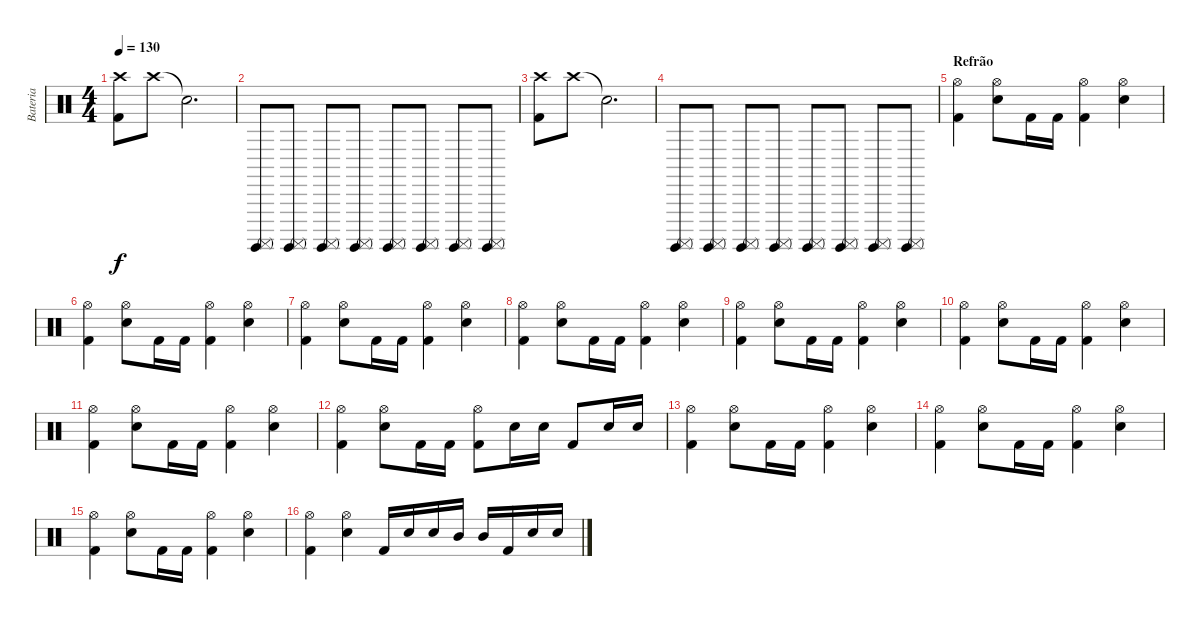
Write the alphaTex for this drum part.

\track ("Bateria" "Bateria") {instrument percussion}
\staff {score}
\articulation defaults
\ts (4 4)
\tempo 130
\clef neutral
\ks c
("Crash high (hit)" "Kick (hit) 2").8{dy f} "Crash high (hit)".8 "Snare (hit)"{t}.2{d volume 0} |
("Surdo (hit)" "Surdo (mute)").8{volume 15} ("Surdo (hit)" "Surdo (mute)").8 ("Surdo (hit)" "Surdo (mute)").8 ("Surdo (hit)" "Surdo (mute)").8 ("Surdo (hit)" "Surdo (mute)").8 ("Surdo (hit)" "Surdo (mute)").8 ("Surdo (hit)" "Surdo (mute)").8 ("Surdo (hit)" "Surdo (mute)").8 |
("Crash high (hit)" "Kick (hit) 2").8 "Crash high (hit)".8 "Snare (hit)"{t}.2{d volume 0} |
("Surdo (hit)" "Surdo (mute)").8{volume 15} ("Surdo (hit)" "Surdo (mute)").8 ("Surdo (hit)" "Surdo (mute)").8 ("Surdo (hit)" "Surdo (mute)").8 ("Surdo (hit)" "Surdo (mute)").8 ("Surdo (hit)" "Surdo (mute)").8 ("Surdo (hit)" "Surdo (mute)").8 ("Surdo (hit)" "Surdo (mute)").8 |
\section ("" "Refrão")
("Hi-Hat (open)" "Kick (hit) 2").4 ("Hi-Hat (open)" "Electric Snare (hit)").8 "Kick (hit) 2".16 "Kick (hit) 2".16 ("Hi-Hat (open)" "Kick (hit) 2").4 ("Hi-Hat (open)" "Electric Snare (hit)").4 |
("Hi-Hat (open)" "Kick (hit) 2").4 ("Hi-Hat (open)" "Electric Snare (hit)").8 "Kick (hit) 2".16 "Kick (hit) 2".16 ("Hi-Hat (open)" "Kick (hit) 2").4 ("Hi-Hat (open)" "Electric Snare (hit)").4 |
("Hi-Hat (open)" "Kick (hit) 2").4 ("Hi-Hat (open)" "Electric Snare (hit)").8 "Kick (hit) 2".16 "Kick (hit) 2".16 ("Hi-Hat (open)" "Kick (hit) 2").4 ("Hi-Hat (open)" "Electric Snare (hit)").4 |
("Hi-Hat (open)" "Kick (hit) 2").4 ("Hi-Hat (open)" "Electric Snare (hit)").8 "Kick (hit) 2".16 "Kick (hit) 2".16 ("Hi-Hat (open)" "Kick (hit) 2").4 ("Hi-Hat (open)" "Electric Snare (hit)").4 |
("Hi-Hat (open)" "Kick (hit) 2").4 ("Hi-Hat (open)" "Electric Snare (hit)").8 "Kick (hit) 2".16 "Kick (hit) 2".16 ("Hi-Hat (open)" "Kick (hit) 2").4 ("Hi-Hat (open)" "Electric Snare (hit)").4 |
("Hi-Hat (open)" "Kick (hit) 2").4 ("Hi-Hat (open)" "Electric Snare (hit)").8 "Kick (hit) 2".16 "Kick (hit) 2".16 ("Hi-Hat (open)" "Kick (hit) 2").4 ("Hi-Hat (open)" "Electric Snare (hit)").4 |
("Hi-Hat (open)" "Kick (hit) 2").4 ("Hi-Hat (open)" "Electric Snare (hit)").8 "Kick (hit) 2".16 "Kick (hit) 2".16 ("Hi-Hat (open)" "Kick (hit) 2").4 ("Hi-Hat (open)" "Electric Snare (hit)").4 |
("Hi-Hat (open)" "Kick (hit) 2").4 ("Hi-Hat (open)" "Electric Snare (hit)").8 "Kick (hit) 2".16 "Kick (hit) 2".16 ("Hi-Hat (open)" "Kick (hit) 2").8 "Electric Snare (hit)".16 "Electric Snare (hit)".16 "Kick (hit) 2".8 "Electric Snare (hit)".16 "Electric Snare (hit)".16 |
("Hi-Hat (open)" "Kick (hit) 2").4 ("Hi-Hat (open)" "Electric Snare (hit)").8 "Kick (hit) 2".16 "Kick (hit) 2".16 ("Hi-Hat (open)" "Kick (hit) 2").4 ("Hi-Hat (open)" "Electric Snare (hit)").4 |
("Hi-Hat (open)" "Kick (hit) 2").4 ("Hi-Hat (open)" "Electric Snare (hit)").8 "Kick (hit) 2".16 "Kick (hit) 2".16 ("Hi-Hat (open)" "Kick (hit) 2").4 ("Hi-Hat (open)" "Electric Snare (hit)").4 |
("Hi-Hat (open)" "Kick (hit) 2").4 ("Hi-Hat (open)" "Electric Snare (hit)").8 "Kick (hit) 2".16 "Kick (hit) 2".16 ("Hi-Hat (open)" "Kick (hit) 2").4 ("Hi-Hat (open)" "Electric Snare (hit)").4 |
("Hi-Hat (open)" "Kick (hit) 2").4 ("Hi-Hat (open)" "Electric Snare (hit)").4 "Kick (hit) 2".16 "Electric Snare (hit)".16 "Electric Snare (hit)".16 "Mid Tom (hit)".16 "Mid Tom (hit)".16 "Kick (hit) 2".16 "Electric Snare (hit)".16 "Electric Snare (hit)".16
